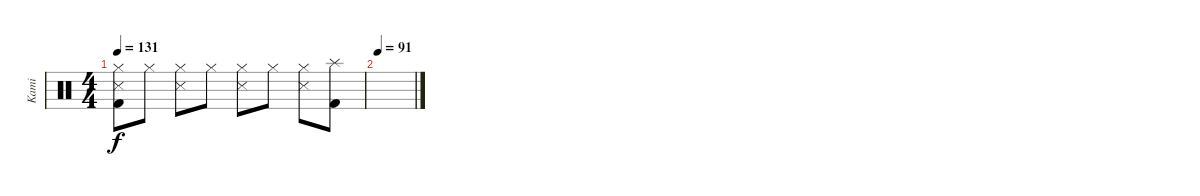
\track ("Kami" "Kami") {instrument percussion}
\staff {score}
\articulation defaults
\ts (4 4)
\tempo 131
\clef neutral
\ks c
("Hi-Hat (closed)" "Kick (hit) 2" "Snare (side stick) 3").8{dy f} "Hi-Hat (closed)".8 ("Hi-Hat (closed)" "Snare (side stick) 3").8 "Hi-Hat (closed)".8 ("Hi-Hat (closed)" "Snare (side stick) 3").8 "Hi-Hat (closed)".8 ("Hi-Hat (closed)" "Snare (side stick) 3").8 ("Splash (hit)" "Kick (hit) 2").8 |
\tempo 91
